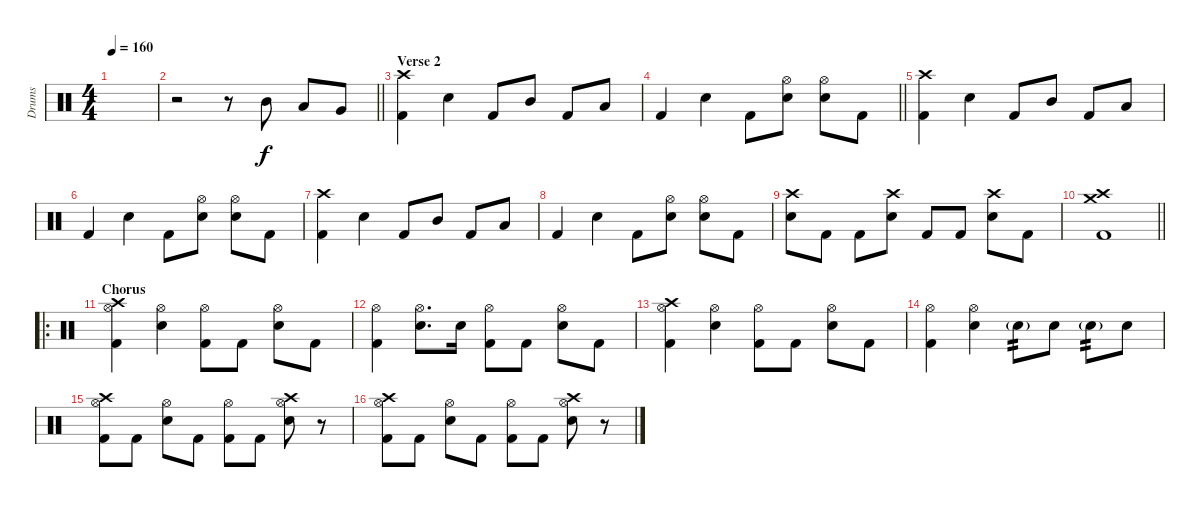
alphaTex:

\track ("Drums" "Drums") {instrument percussion}
\staff {score}
\articulation defaults
\ts (4 4)
\tempo 160
\clef neutral
\ks c
|
\barLineRight lightlight
r.2 r.8 "Mid Tom (hit)".8 "Low Tom (hit)".8 "Very Low Tom (hit)".8 |
\section ("" "Verse 2")
("Crash high (hit)" "Kick (hit) 2").4 "Electric Snare (hit)".4 "Kick (hit) 2".8 "Mid Tom (hit)".8 "Kick (hit) 2".8 "Low Tom (hit)".8 |
\barLineRight lightlight "Kick (hit) 2".4 "Electric Snare (hit)".4 "Kick (hit) 2".8
("Hi-Hat (open)" "Electric Snare (hit)").8 ("Hi-Hat (open)" "Electric Snare (hit)").8 "Kick (hit) 2".8 |
("Crash high (hit)" "Kick (hit) 2").4 "Electric Snare (hit)".4 "Kick (hit) 2".8 "Mid Tom (hit)".8 "Kick (hit) 2".8 "Low Tom (hit)".8 |
"Kick (hit) 2".4 "Electric Snare (hit)".4 "Kick (hit) 2".8 ("Hi-Hat (open)" "Electric Snare (hit)").8 ("Hi-Hat (open)" "Electric Snare (hit)").8 "Kick (hit) 2".8 |
("Crash high (hit)" "Kick (hit) 2").4 "Electric Snare (hit)".4 "Kick (hit) 2".8 "Mid Tom (hit)".8 "Kick (hit) 2".8 "Low Tom (hit)".8 |
"Kick (hit) 2".4 "Electric Snare (hit)".4 "Kick (hit) 2".8 ("Hi-Hat (open)" "Electric Snare (hit)").8 ("Hi-Hat (open)" "Electric Snare (hit)").8 "Kick (hit) 2".8 |
("Crash high (hit)" "Electric Snare (hit)").8 "Kick (hit) 2".8 "Kick (hit) 2".8 ("Crash high (hit)" "Electric Snare (hit)").8 "Kick (hit) 2".8 "Kick (hit) 2".8 ("Crash high (hit)" "Electric Snare (hit)").8 "Kick (hit) 2".8 |
\barLineRight lightlight
("Crash high (hit)" "Crash medium (hit)" "Kick (hit) 2").1 |
\ro
\section ("" "Chorus")
("Crash high (hit)" "Hi-Hat (open)" "Kick (hit) 2").4 ("Hi-Hat (open)" "Electric Snare (hit)").4 ("Hi-Hat (open)" "Kick (hit) 2").8 "Kick (hit) 2".8 ("Hi-Hat (open)" "Electric Snare (hit)").8 "Kick (hit) 2".8 |
("Hi-Hat (open)" "Kick (hit) 2").4 ("Hi-Hat (open)" "Electric Snare (hit)").8{d} "Electric Snare (hit)".16 ("Hi-Hat (open)" "Kick (hit) 2").8 "Kick (hit) 2".8 ("Hi-Hat (open)" "Electric Snare (hit)").8 "Kick (hit) 2".8 |
("Crash high (hit)" "Hi-Hat (open)" "Kick (hit) 2").4 ("Hi-Hat (open)" "Electric Snare (hit)").4 ("Hi-Hat (open)" "Kick (hit) 2").8 "Kick (hit) 2".8 ("Hi-Hat (open)" "Electric Snare (hit)").8 "Kick (hit) 2".8 |
("Hi-Hat (open)" "Kick (hit) 2").4 ("Hi-Hat (open)" "Electric Snare (hit)").4 "Electric Snare (hit)"{g}.8{tp 2} "Electric Snare (hit)".8 "Electric Snare (hit)"{g}.8{tp 2} "Electric Snare (hit)".8 |
("Crash high (hit)" "Hi-Hat (open)" "Kick (hit) 2").8 "Kick (hit) 2".8 ("Hi-Hat (open)" "Electric Snare (hit)").8 "Kick (hit) 2".8 ("Hi-Hat (open)" "Kick (hit) 2").8 "Kick (hit) 2".8 ("Crash high (hit)" "Hi-Hat (open)" "Electric Snare (hit)").8 r.8 |
("Crash high (hit)" "Hi-Hat (open)" "Kick (hit) 2").8 "Kick (hit) 2".8 ("Hi-Hat (open)" "Electric Snare (hit)").8 "Kick (hit) 2".8 ("Hi-Hat (open)" "Kick (hit) 2").8 "Kick (hit) 2".8 ("Crash high (hit)" "Hi-Hat (open)" "Electric Snare (hit)").8 r.8
